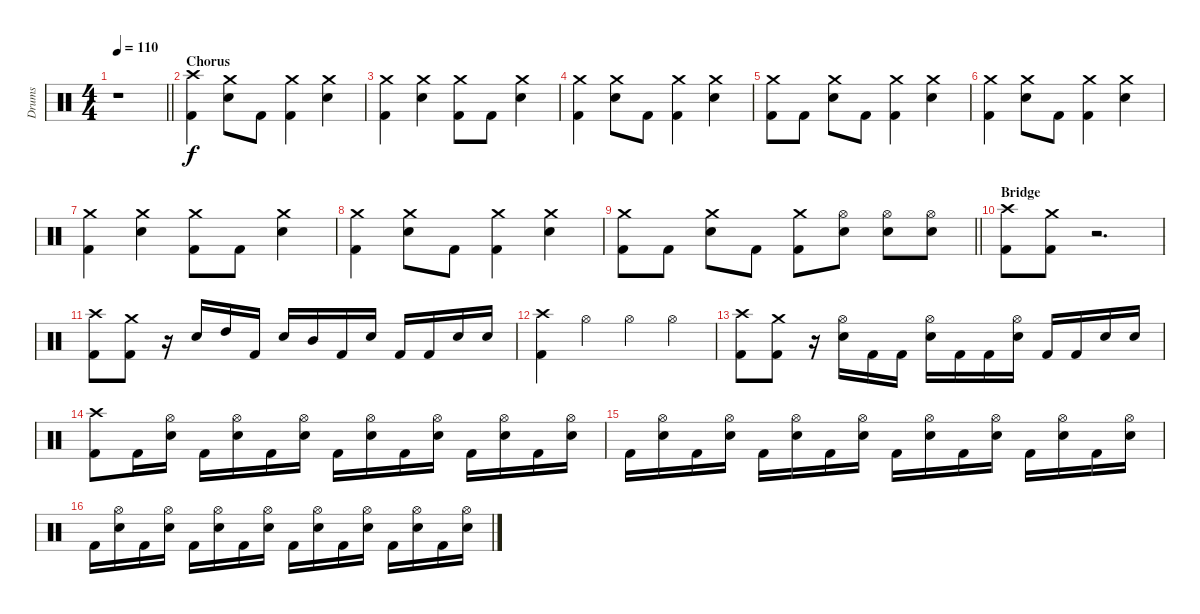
\track ("Drums" "Drums") {instrument percussion}
\staff {score}
\articulation defaults
\ts (4 4)
\tempo 110
\clef neutral
\barLineRight lightlight
\ks c
r.1{dy f} |
\section ("" "Chorus")
("Crash high (hit)" "Kick (hit) 2").4 ("Crash medium (hit)" "Snare (hit) 2").8 "Kick (hit) 2".8 ("Crash medium (hit)" "Kick (hit) 2").4 ("Crash medium (hit)" "Snare (hit) 2").4 |
("Crash medium (hit)" "Kick (hit) 2").4 ("Crash medium (hit)" "Snare (hit) 2").4 ("Crash medium (hit)" "Kick (hit) 2").8 "Kick (hit) 2".8 ("Crash medium (hit)" "Snare (hit) 2").4 |
("Crash medium (hit)" "Kick (hit) 2").4 ("Crash medium (hit)" "Snare (hit) 2").8 "Kick (hit) 2".8 ("Crash medium (hit)" "Kick (hit) 2").4 ("Crash medium (hit)" "Snare (hit) 2").4 |
("Crash medium (hit)" "Kick (hit) 2").8 "Kick (hit) 2".8 ("Crash medium (hit)" "Snare (hit) 2").8 "Kick (hit) 2".8 ("Crash medium (hit)" "Kick (hit) 2").4 ("Crash medium (hit)" "Snare (hit) 2").4 |
("Crash medium (hit)" "Kick (hit) 2").4 ("Crash medium (hit)" "Snare (hit) 2").8 "Kick (hit) 2".8 ("Crash medium (hit)" "Kick (hit) 2").4 ("Crash medium (hit)" "Snare (hit) 2").4 |
("Crash medium (hit)" "Kick (hit) 2").4 ("Crash medium (hit)" "Snare (hit) 2").4 ("Crash medium (hit)" "Kick (hit) 2").8 "Kick (hit) 2".8 ("Crash medium (hit)" "Snare (hit) 2").4 |
("Crash medium (hit)" "Kick (hit) 2").4 ("Crash medium (hit)" "Snare (hit) 2").8 "Kick (hit) 2".8 ("Crash medium (hit)" "Kick (hit) 2").4 ("Crash medium (hit)" "Snare (hit) 2").4 |
\barLineRight lightlight
("Crash medium (hit)" "Kick (hit) 2").8 "Kick (hit) 2".8 ("Crash medium (hit)" "Snare (hit) 2").8 "Kick (hit) 2".8 ("Crash medium (hit)" "Kick (hit) 2").8 ("Hi-Hat (open)" "Snare (hit) 2").8 ("Hi-Hat (open)" "Snare (hit) 2").8 ("Hi-Hat (open)" "Snare (hit) 2").8 |
\section ("" "Bridge")
("Crash high (hit)" "Kick (hit) 2").8 ("Crash medium (hit)" "Kick (hit) 2").8 r.2{d} |
("Crash high (hit)" "Kick (hit) 2").8 ("Crash medium (hit)" "Kick (hit) 2").8 r.16 "Snare (hit) 2".16 "High Tom (hit)".16 "Kick (hit) 2".16 "Snare (hit) 2".16 "Mid Tom (hit)".16 "Kick (hit) 2".16 "Snare (hit) 2".16 "Kick (hit) 2".16 "Kick (hit) 2".16 "Snare (hit) 2".16 "Snare (hit) 2".16 |
("Crash high (hit)" "Kick (hit) 2").4 "Hi-Hat (open)".4 "Hi-Hat (open)".4 "Hi-Hat (open)".4 |
("Crash high (hit)" "Kick (hit) 2").8 ("Crash medium (hit)" "Kick (hit) 2").8 r.16 ("Hi-Hat (open)" "Snare (hit) 2").16 "Kick (hit) 2".16 "Kick (hit) 2".16 ("Hi-Hat (open)" "Snare (hit) 2").16 "Kick (hit) 2".16 "Kick (hit) 2".16 ("Hi-Hat (open)" "Snare (hit) 2").16 "Kick (hit) 2".16 "Kick (hit) 2".16 "Snare (hit) 2".16 "Snare (hit) 2".16 |
("Crash high (hit)" "Kick (hit) 2").8 "Kick (hit) 2".16 ("Hi-Hat (open)" "Snare (hit) 2").16 "Kick (hit) 2".16 ("Hi-Hat (open)" "Snare (hit) 2").16 "Kick (hit) 2".16 ("Hi-Hat (open)" "Snare (hit) 2").16 "Kick (hit) 2".16 ("Hi-Hat (open)" "Snare (hit) 2").16 "Kick (hit) 2".16 ("Hi-Hat (open)" "Snare (hit) 2").16 "Kick (hit) 2".16 ("Hi-Hat (open)" "Snare (hit) 2").16 "Kick (hit) 2".16 ("Hi-Hat (open)" "Snare (hit) 2").16 |
"Kick (hit) 2".16 ("Hi-Hat (open)" "Snare (hit) 2").16 "Kick (hit) 2".16 ("Hi-Hat (open)" "Snare (hit) 2").16 "Kick (hit) 2".16 ("Hi-Hat (open)" "Snare (hit) 2").16 "Kick (hit) 2".16 ("Hi-Hat (open)" "Snare (hit) 2").16 "Kick (hit) 2".16 ("Hi-Hat (open)" "Snare (hit) 2").16 "Kick (hit) 2".16 ("Hi-Hat (open)" "Snare (hit) 2").16 "Kick (hit) 2".16 ("Hi-Hat (open)" "Snare (hit) 2").16 "Kick (hit) 2".16 ("Hi-Hat (open)" "Snare (hit) 2").16 |
"Kick (hit) 2".16 ("Hi-Hat (open)" "Snare (hit) 2").16 "Kick (hit) 2".16 ("Hi-Hat (open)" "Snare (hit) 2").16 "Kick (hit) 2".16 ("Hi-Hat (open)" "Snare (hit) 2").16 "Kick (hit) 2".16 ("Hi-Hat (open)" "Snare (hit) 2").16 "Kick (hit) 2".16 ("Hi-Hat (open)" "Snare (hit) 2").16 "Kick (hit) 2".16 ("Hi-Hat (open)" "Snare (hit) 2").16 "Kick (hit) 2".16 ("Hi-Hat (open)" "Snare (hit) 2").16 "Kick (hit) 2".16 ("Hi-Hat (open)" "Snare (hit) 2").16
